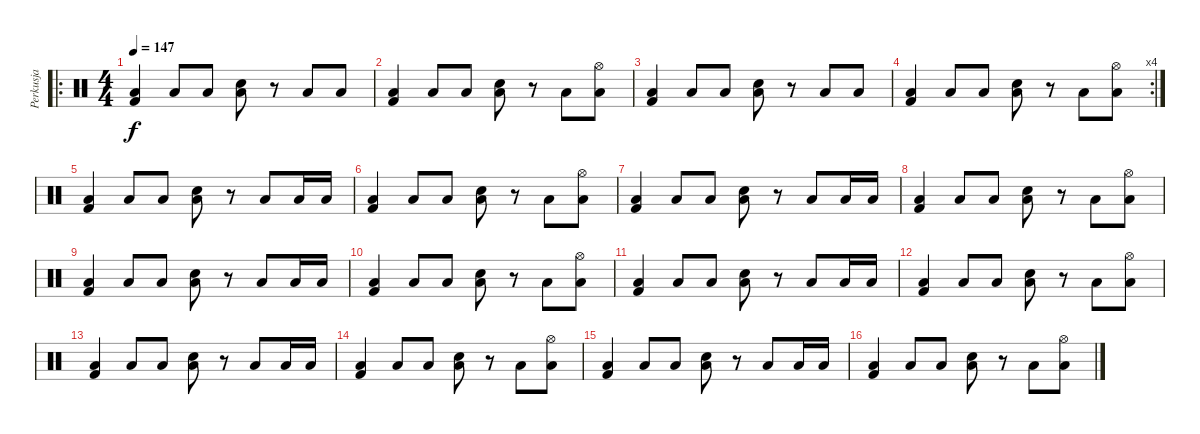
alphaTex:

\track ("Perkusja" "Perkusja") {instrument percussion}
\staff {score}
\articulation defaults
\ro
\ts (4 4)
\tempo 147
\clef neutral
\ks c
("Low Tom (hit)" "Kick (hit) 2").4{dy f} "Low Tom (hit)".8 "Low Tom (hit)".8 ("Low Tom (hit)" "Snare (hit) 2").8 r.8 "Low Tom (hit)".8 "Low Tom (hit)".8 |
("Low Tom (hit)" "Kick (hit) 2").4 "Low Tom (hit)".8 "Low Tom (hit)".8 ("Low Tom (hit)" "Snare (hit) 2").8 r.8 "Low Tom (hit)".8 ("Hi-Hat (open)" "Low Tom (hit)").8 |
("Low Tom (hit)" "Kick (hit) 2").4 "Low Tom (hit)".8 "Low Tom (hit)".8 ("Low Tom (hit)" "Snare (hit) 2").8 r.8 "Low Tom (hit)".8 "Low Tom (hit)".8 |
\rc 4
("Low Tom (hit)" "Kick (hit) 2").4 "Low Tom (hit)".8 "Low Tom (hit)".8 ("Low Tom (hit)" "Snare (hit) 2").8 r.8 "Low Tom (hit)".8 ("Hi-Hat (open)" "Low Tom (hit)").8 |
("Low Tom (hit)" "Kick (hit) 2").4 "Low Tom (hit)".8 "Low Tom (hit)".8 ("Low Tom (hit)" "Snare (hit) 2").8 r.8 "Low Tom (hit)".8 "Low Tom (hit)".16 "Low Tom (hit)".16 |
("Low Tom (hit)" "Kick (hit) 2").4 "Low Tom (hit)".8 "Low Tom (hit)".8 ("Low Tom (hit)" "Snare (hit) 2").8 r.8 "Low Tom (hit)".8 ("Hi-Hat (open)" "Low Tom (hit)").8 |
("Low Tom (hit)" "Kick (hit) 2").4 "Low Tom (hit)".8 "Low Tom (hit)".8 ("Low Tom (hit)" "Snare (hit) 2").8 r.8 "Low Tom (hit)".8 "Low Tom (hit)".16 "Low Tom (hit)".16 |
("Low Tom (hit)" "Kick (hit) 2").4 "Low Tom (hit)".8 "Low Tom (hit)".8 ("Low Tom (hit)" "Snare (hit) 2").8 r.8 "Low Tom (hit)".8 ("Hi-Hat (open)" "Low Tom (hit)").8 |
("Low Tom (hit)" "Kick (hit) 2").4 "Low Tom (hit)".8 "Low Tom (hit)".8 ("Low Tom (hit)" "Snare (hit) 2").8 r.8 "Low Tom (hit)".8 "Low Tom (hit)".16 "Low Tom (hit)".16 |
("Low Tom (hit)" "Kick (hit) 2").4 "Low Tom (hit)".8 "Low Tom (hit)".8 ("Low Tom (hit)" "Snare (hit) 2").8 r.8 "Low Tom (hit)".8 ("Hi-Hat (open)" "Low Tom (hit)").8 |
("Low Tom (hit)" "Kick (hit) 2").4 "Low Tom (hit)".8 "Low Tom (hit)".8 ("Low Tom (hit)" "Snare (hit) 2").8 r.8 "Low Tom (hit)".8 "Low Tom (hit)".16 "Low Tom (hit)".16 |
("Low Tom (hit)" "Kick (hit) 2").4 "Low Tom (hit)".8 "Low Tom (hit)".8 ("Low Tom (hit)" "Snare (hit) 2").8 r.8 "Low Tom (hit)".8 ("Hi-Hat (open)" "Low Tom (hit)").8 |
("Low Tom (hit)" "Kick (hit) 2").4 "Low Tom (hit)".8 "Low Tom (hit)".8 ("Low Tom (hit)" "Snare (hit) 2").8 r.8 "Low Tom (hit)".8 "Low Tom (hit)".16 "Low Tom (hit)".16 |
("Low Tom (hit)" "Kick (hit) 2").4 "Low Tom (hit)".8 "Low Tom (hit)".8 ("Low Tom (hit)" "Snare (hit) 2").8 r.8 "Low Tom (hit)".8 ("Hi-Hat (open)" "Low Tom (hit)").8 |
("Low Tom (hit)" "Kick (hit) 2").4 "Low Tom (hit)".8 "Low Tom (hit)".8 ("Low Tom (hit)" "Snare (hit) 2").8 r.8 "Low Tom (hit)".8 "Low Tom (hit)".16 "Low Tom (hit)".16 |
("Low Tom (hit)" "Kick (hit) 2").4 "Low Tom (hit)".8 "Low Tom (hit)".8 ("Low Tom (hit)" "Snare (hit) 2").8 r.8 "Low Tom (hit)".8 ("Hi-Hat (open)" "Low Tom (hit)").8
